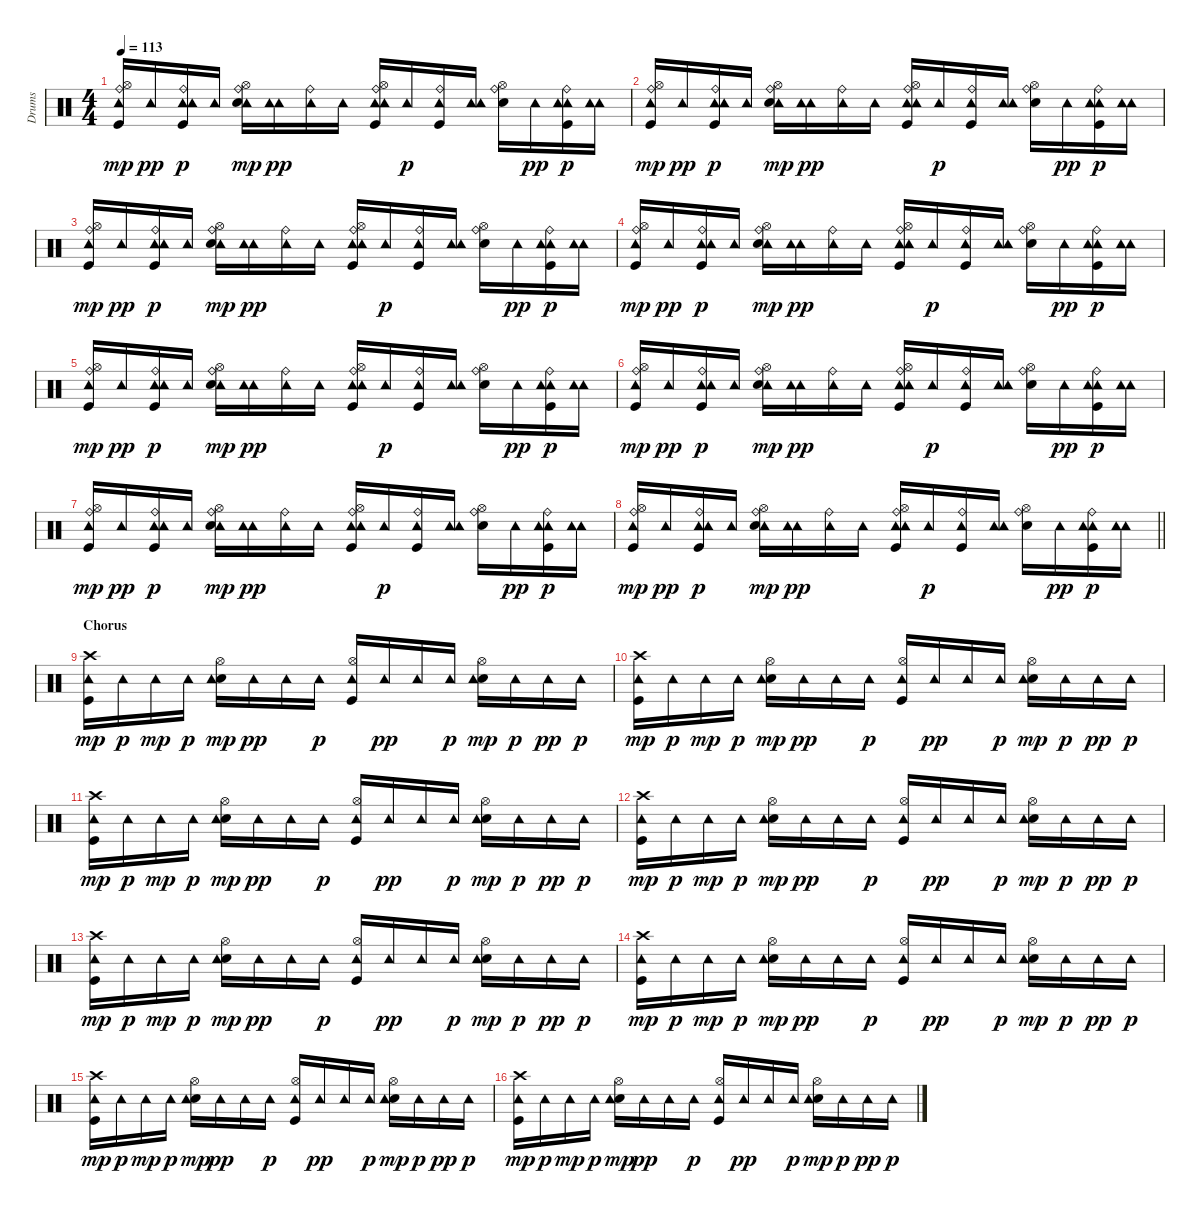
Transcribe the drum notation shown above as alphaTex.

\track ("Drums" "Drums") {instrument percussion}
\staff {score}
\articulation defaults
\ts (4 4)
\tempo 113
\clef neutral
\ks c
("Kick (hit)" "Hi-Hat (open)" "Ride (bell)" "Tambourine (hit)").16{dy mp} "Tambourine (hit)".16{dy pp} ("Tambourine (hit)" "Kick (hit)" "Ride (bell)" "Tambourine (hit)").16{dy p} "Tambourine (hit)".16 ("Tambourine (hit)" "Electric Snare (hit)" "Hi-Hat (open)" "Ride (bell)").16{dy mp} ("Tambourine (hit)" "Tambourine (hit)").16{dy pp} ("Tambourine (hit)" "Ride (bell)").16 "Tambourine (hit)".16 ("Tambourine (hit)" "Kick (hit)" "Hi-Hat (open)" "Ride (bell)" "Tambourine (hit)").16 "Tambourine (hit)".16{dy p} ("Kick (hit)" "Ride (bell)" "Tambourine (hit)").16 ("Tambourine (hit)" "Tambourine (hit)").16 ("Electric Snare (hit)" "Hi-Hat (open)" "Ride (bell)").16 "Tambourine (hit)".16{dy pp} ("Tambourine (hit)" "Tambourine (hit)" "Kick (hit)" "Ride (bell)").16{dy p} ("Tambourine (hit)" "Tambourine (hit)").16 |
("Kick (hit)" "Hi-Hat (open)" "Ride (bell)" "Tambourine (hit)").16{dy mp} "Tambourine (hit)".16{dy pp} ("Tambourine (hit)" "Kick (hit)" "Ride (bell)" "Tambourine (hit)").16{dy p} "Tambourine (hit)".16 ("Tambourine (hit)" "Electric Snare (hit)" "Hi-Hat (open)" "Ride (bell)").16{dy mp} ("Tambourine (hit)" "Tambourine (hit)").16{dy pp} ("Tambourine (hit)" "Ride (bell)").16 "Tambourine (hit)".16 ("Tambourine (hit)" "Kick (hit)" "Hi-Hat (open)" "Ride (bell)" "Tambourine (hit)").16 "Tambourine (hit)".16{dy p} ("Kick (hit)" "Ride (bell)" "Tambourine (hit)").16 ("Tambourine (hit)" "Tambourine (hit)").16 ("Electric Snare (hit)" "Hi-Hat (open)" "Ride (bell)").16 "Tambourine (hit)".16{dy pp} ("Tambourine (hit)" "Tambourine (hit)" "Kick (hit)" "Ride (bell)").16{dy p} ("Tambourine (hit)" "Tambourine (hit)").16 |
("Kick (hit)" "Hi-Hat (open)" "Ride (bell)" "Tambourine (hit)").16{dy mp} "Tambourine (hit)".16{dy pp} ("Tambourine (hit)" "Kick (hit)" "Ride (bell)" "Tambourine (hit)").16{dy p} "Tambourine (hit)".16 ("Tambourine (hit)" "Electric Snare (hit)" "Hi-Hat (open)" "Ride (bell)").16{dy mp} ("Tambourine (hit)" "Tambourine (hit)").16{dy pp} ("Tambourine (hit)" "Ride (bell)").16 "Tambourine (hit)".16 ("Tambourine (hit)" "Kick (hit)" "Hi-Hat (open)" "Ride (bell)" "Tambourine (hit)").16 "Tambourine (hit)".16{dy p} ("Kick (hit)" "Ride (bell)" "Tambourine (hit)").16 ("Tambourine (hit)" "Tambourine (hit)").16 ("Electric Snare (hit)" "Hi-Hat (open)" "Ride (bell)").16 "Tambourine (hit)".16{dy pp} ("Tambourine (hit)" "Tambourine (hit)" "Kick (hit)" "Ride (bell)").16{dy p} ("Tambourine (hit)" "Tambourine (hit)").16 |
("Kick (hit)" "Hi-Hat (open)" "Ride (bell)" "Tambourine (hit)").16{dy mp} "Tambourine (hit)".16{dy pp} ("Tambourine (hit)" "Kick (hit)" "Ride (bell)" "Tambourine (hit)").16{dy p} "Tambourine (hit)".16 ("Tambourine (hit)" "Electric Snare (hit)" "Hi-Hat (open)" "Ride (bell)").16{dy mp} ("Tambourine (hit)" "Tambourine (hit)").16{dy pp} ("Tambourine (hit)" "Ride (bell)").16 "Tambourine (hit)".16 ("Tambourine (hit)" "Kick (hit)" "Hi-Hat (open)" "Ride (bell)" "Tambourine (hit)").16 "Tambourine (hit)".16{dy p} ("Kick (hit)" "Ride (bell)" "Tambourine (hit)").16 ("Tambourine (hit)" "Tambourine (hit)").16 ("Electric Snare (hit)" "Hi-Hat (open)" "Ride (bell)").16 "Tambourine (hit)".16{dy pp} ("Tambourine (hit)" "Tambourine (hit)" "Kick (hit)" "Ride (bell)").16{dy p} ("Tambourine (hit)" "Tambourine (hit)").16 |
("Kick (hit)" "Hi-Hat (open)" "Ride (bell)" "Tambourine (hit)").16{dy mp} "Tambourine (hit)".16{dy pp} ("Tambourine (hit)" "Kick (hit)" "Ride (bell)" "Tambourine (hit)").16{dy p} "Tambourine (hit)".16 ("Tambourine (hit)" "Electric Snare (hit)" "Hi-Hat (open)" "Ride (bell)").16{dy mp} ("Tambourine (hit)" "Tambourine (hit)").16{dy pp} ("Tambourine (hit)" "Ride (bell)").16 "Tambourine (hit)".16 ("Tambourine (hit)" "Kick (hit)" "Hi-Hat (open)" "Ride (bell)" "Tambourine (hit)").16 "Tambourine (hit)".16{dy p} ("Kick (hit)" "Ride (bell)" "Tambourine (hit)").16 ("Tambourine (hit)" "Tambourine (hit)").16 ("Electric Snare (hit)" "Hi-Hat (open)" "Ride (bell)").16 "Tambourine (hit)".16{dy pp} ("Tambourine (hit)" "Tambourine (hit)" "Kick (hit)" "Ride (bell)").16{dy p} ("Tambourine (hit)" "Tambourine (hit)").16 |
("Kick (hit)" "Hi-Hat (open)" "Ride (bell)" "Tambourine (hit)").16{dy mp} "Tambourine (hit)".16{dy pp} ("Tambourine (hit)" "Kick (hit)" "Ride (bell)" "Tambourine (hit)").16{dy p} "Tambourine (hit)".16 ("Tambourine (hit)" "Electric Snare (hit)" "Hi-Hat (open)" "Ride (bell)").16{dy mp} ("Tambourine (hit)" "Tambourine (hit)").16{dy pp} ("Tambourine (hit)" "Ride (bell)").16 "Tambourine (hit)".16 ("Tambourine (hit)" "Kick (hit)" "Hi-Hat (open)" "Ride (bell)" "Tambourine (hit)").16 "Tambourine (hit)".16{dy p} ("Kick (hit)" "Ride (bell)" "Tambourine (hit)").16 ("Tambourine (hit)" "Tambourine (hit)").16 ("Electric Snare (hit)" "Hi-Hat (open)" "Ride (bell)").16 "Tambourine (hit)".16{dy pp} ("Tambourine (hit)" "Tambourine (hit)" "Kick (hit)" "Ride (bell)").16{dy p} ("Tambourine (hit)" "Tambourine (hit)").16 |
("Kick (hit)" "Hi-Hat (open)" "Ride (bell)" "Tambourine (hit)").16{dy mp} "Tambourine (hit)".16{dy pp} ("Tambourine (hit)" "Kick (hit)" "Ride (bell)" "Tambourine (hit)").16{dy p} "Tambourine (hit)".16 ("Tambourine (hit)" "Electric Snare (hit)" "Hi-Hat (open)" "Ride (bell)").16{dy mp} ("Tambourine (hit)" "Tambourine (hit)").16{dy pp} ("Tambourine (hit)" "Ride (bell)").16 "Tambourine (hit)".16 ("Tambourine (hit)" "Kick (hit)" "Hi-Hat (open)" "Ride (bell)" "Tambourine (hit)").16 "Tambourine (hit)".16{dy p} ("Kick (hit)" "Ride (bell)" "Tambourine (hit)").16 ("Tambourine (hit)" "Tambourine (hit)").16 ("Electric Snare (hit)" "Hi-Hat (open)" "Ride (bell)").16 "Tambourine (hit)".16{dy pp} ("Tambourine (hit)" "Tambourine (hit)" "Kick (hit)" "Ride (bell)").16{dy p} ("Tambourine (hit)" "Tambourine (hit)").16 |
\barLineRight lightlight
("Kick (hit)" "Hi-Hat (open)" "Ride (bell)" "Tambourine (hit)").16{dy mp} "Tambourine (hit)".16{dy pp} ("Tambourine (hit)" "Kick (hit)" "Ride (bell)" "Tambourine (hit)").16{dy p} "Tambourine (hit)".16 ("Tambourine (hit)" "Electric Snare (hit)" "Hi-Hat (open)" "Ride (bell)").16{dy mp} ("Tambourine (hit)" "Tambourine (hit)").16{dy pp} ("Tambourine (hit)" "Ride (bell)").16 "Tambourine (hit)".16 ("Tambourine (hit)" "Kick (hit)" "Hi-Hat (open)" "Ride (bell)" "Tambourine (hit)").16 "Tambourine (hit)".16{dy p} ("Kick (hit)" "Ride (bell)" "Tambourine (hit)").16 ("Tambourine (hit)" "Tambourine (hit)").16 ("Electric Snare (hit)" "Hi-Hat (open)" "Ride (bell)").16 "Tambourine (hit)".16{dy pp} ("Tambourine (hit)" "Tambourine (hit)" "Kick (hit)" "Ride (bell)").16{dy p} ("Tambourine (hit)" "Tambourine (hit)").16 |
\section ("" "Chorus")
("Kick (hit)" "Crash high (hit)" "Tambourine (hit)").16{dy mp} "Tambourine (hit)".16{dy p} "Tambourine (hit)".16{dy mp} "Tambourine (hit)".16{dy p} ("Electric Snare (hit)" "Hi-Hat (open)" "Tambourine (hit)").16{dy mp} "Tambourine (hit)".16{dy pp} "Tambourine (hit)".16 "Tambourine (hit)".16{dy p} ("Kick (hit)" "Hi-Hat (open)" "Tambourine (hit)").16 "Tambourine (hit)".16{dy pp} "Tambourine (hit)".16 "Tambourine (hit)".16{dy p} ("Electric Snare (hit)" "Hi-Hat (open)" "Tambourine (hit)").16{dy mp} "Tambourine (hit)".16{dy p} "Tambourine (hit)".16{dy pp} "Tambourine (hit)".16{dy p} |
("Kick (hit)" "Crash high (hit)" "Tambourine (hit)").16{dy mp} "Tambourine (hit)".16{dy p} "Tambourine (hit)".16{dy mp} "Tambourine (hit)".16{dy p} ("Electric Snare (hit)" "Hi-Hat (open)" "Tambourine (hit)").16{dy mp} "Tambourine (hit)".16{dy pp} "Tambourine (hit)".16 "Tambourine (hit)".16{dy p} ("Kick (hit)" "Hi-Hat (open)" "Tambourine (hit)").16 "Tambourine (hit)".16{dy pp} "Tambourine (hit)".16 "Tambourine (hit)".16{dy p} ("Electric Snare (hit)" "Hi-Hat (open)" "Tambourine (hit)").16{dy mp} "Tambourine (hit)".16{dy p} "Tambourine (hit)".16{dy pp} "Tambourine (hit)".16{dy p} |
("Kick (hit)" "Crash high (hit)" "Tambourine (hit)").16{dy mp} "Tambourine (hit)".16{dy p} "Tambourine (hit)".16{dy mp} "Tambourine (hit)".16{dy p} ("Electric Snare (hit)" "Hi-Hat (open)" "Tambourine (hit)").16{dy mp} "Tambourine (hit)".16{dy pp} "Tambourine (hit)".16 "Tambourine (hit)".16{dy p} ("Kick (hit)" "Hi-Hat (open)" "Tambourine (hit)").16 "Tambourine (hit)".16{dy pp} "Tambourine (hit)".16 "Tambourine (hit)".16{dy p} ("Electric Snare (hit)" "Hi-Hat (open)" "Tambourine (hit)").16{dy mp} "Tambourine (hit)".16{dy p} "Tambourine (hit)".16{dy pp} "Tambourine (hit)".16{dy p} |
("Kick (hit)" "Crash high (hit)" "Tambourine (hit)").16{dy mp} "Tambourine (hit)".16{dy p} "Tambourine (hit)".16{dy mp} "Tambourine (hit)".16{dy p} ("Electric Snare (hit)" "Hi-Hat (open)" "Tambourine (hit)").16{dy mp} "Tambourine (hit)".16{dy pp} "Tambourine (hit)".16 "Tambourine (hit)".16{dy p} ("Kick (hit)" "Hi-Hat (open)" "Tambourine (hit)").16 "Tambourine (hit)".16{dy pp} "Tambourine (hit)".16 "Tambourine (hit)".16{dy p} ("Electric Snare (hit)" "Hi-Hat (open)" "Tambourine (hit)").16{dy mp} "Tambourine (hit)".16{dy p} "Tambourine (hit)".16{dy pp} "Tambourine (hit)".16{dy p} |
("Kick (hit)" "Crash high (hit)" "Tambourine (hit)").16{dy mp} "Tambourine (hit)".16{dy p} "Tambourine (hit)".16{dy mp} "Tambourine (hit)".16{dy p} ("Electric Snare (hit)" "Hi-Hat (open)" "Tambourine (hit)").16{dy mp} "Tambourine (hit)".16{dy pp} "Tambourine (hit)".16 "Tambourine (hit)".16{dy p} ("Kick (hit)" "Hi-Hat (open)" "Tambourine (hit)").16 "Tambourine (hit)".16{dy pp} "Tambourine (hit)".16 "Tambourine (hit)".16{dy p} ("Electric Snare (hit)" "Hi-Hat (open)" "Tambourine (hit)").16{dy mp} "Tambourine (hit)".16{dy p} "Tambourine (hit)".16{dy pp} "Tambourine (hit)".16{dy p} |
("Kick (hit)" "Crash high (hit)" "Tambourine (hit)").16{dy mp} "Tambourine (hit)".16{dy p} "Tambourine (hit)".16{dy mp} "Tambourine (hit)".16{dy p} ("Electric Snare (hit)" "Hi-Hat (open)" "Tambourine (hit)").16{dy mp} "Tambourine (hit)".16{dy pp} "Tambourine (hit)".16 "Tambourine (hit)".16{dy p} ("Kick (hit)" "Hi-Hat (open)" "Tambourine (hit)").16 "Tambourine (hit)".16{dy pp} "Tambourine (hit)".16 "Tambourine (hit)".16{dy p} ("Electric Snare (hit)" "Hi-Hat (open)" "Tambourine (hit)").16{dy mp} "Tambourine (hit)".16{dy p} "Tambourine (hit)".16{dy pp} "Tambourine (hit)".16{dy p} |
("Kick (hit)" "Crash high (hit)" "Tambourine (hit)").16{dy mp} "Tambourine (hit)".16{dy p} "Tambourine (hit)".16{dy mp} "Tambourine (hit)".16{dy p} ("Electric Snare (hit)" "Hi-Hat (open)" "Tambourine (hit)").16{dy mp} "Tambourine (hit)".16{dy pp} "Tambourine (hit)".16 "Tambourine (hit)".16{dy p} ("Kick (hit)" "Hi-Hat (open)" "Tambourine (hit)").16 "Tambourine (hit)".16{dy pp} "Tambourine (hit)".16 "Tambourine (hit)".16{dy p} ("Electric Snare (hit)" "Hi-Hat (open)" "Tambourine (hit)").16{dy mp} "Tambourine (hit)".16{dy p} "Tambourine (hit)".16{dy pp} "Tambourine (hit)".16{dy p} |
("Kick (hit)" "Crash high (hit)" "Tambourine (hit)").16{dy mp} "Tambourine (hit)".16{dy p} "Tambourine (hit)".16{dy mp} "Tambourine (hit)".16{dy p} ("Electric Snare (hit)" "Hi-Hat (open)" "Tambourine (hit)").16{dy mp} "Tambourine (hit)".16{dy pp} "Tambourine (hit)".16 "Tambourine (hit)".16{dy p} ("Kick (hit)" "Hi-Hat (open)" "Tambourine (hit)").16 "Tambourine (hit)".16{dy pp} "Tambourine (hit)".16 "Tambourine (hit)".16{dy p} ("Electric Snare (hit)" "Hi-Hat (open)" "Tambourine (hit)").16{dy mp} "Tambourine (hit)".16{dy p} "Tambourine (hit)".16{dy pp} "Tambourine (hit)".16{dy p}
